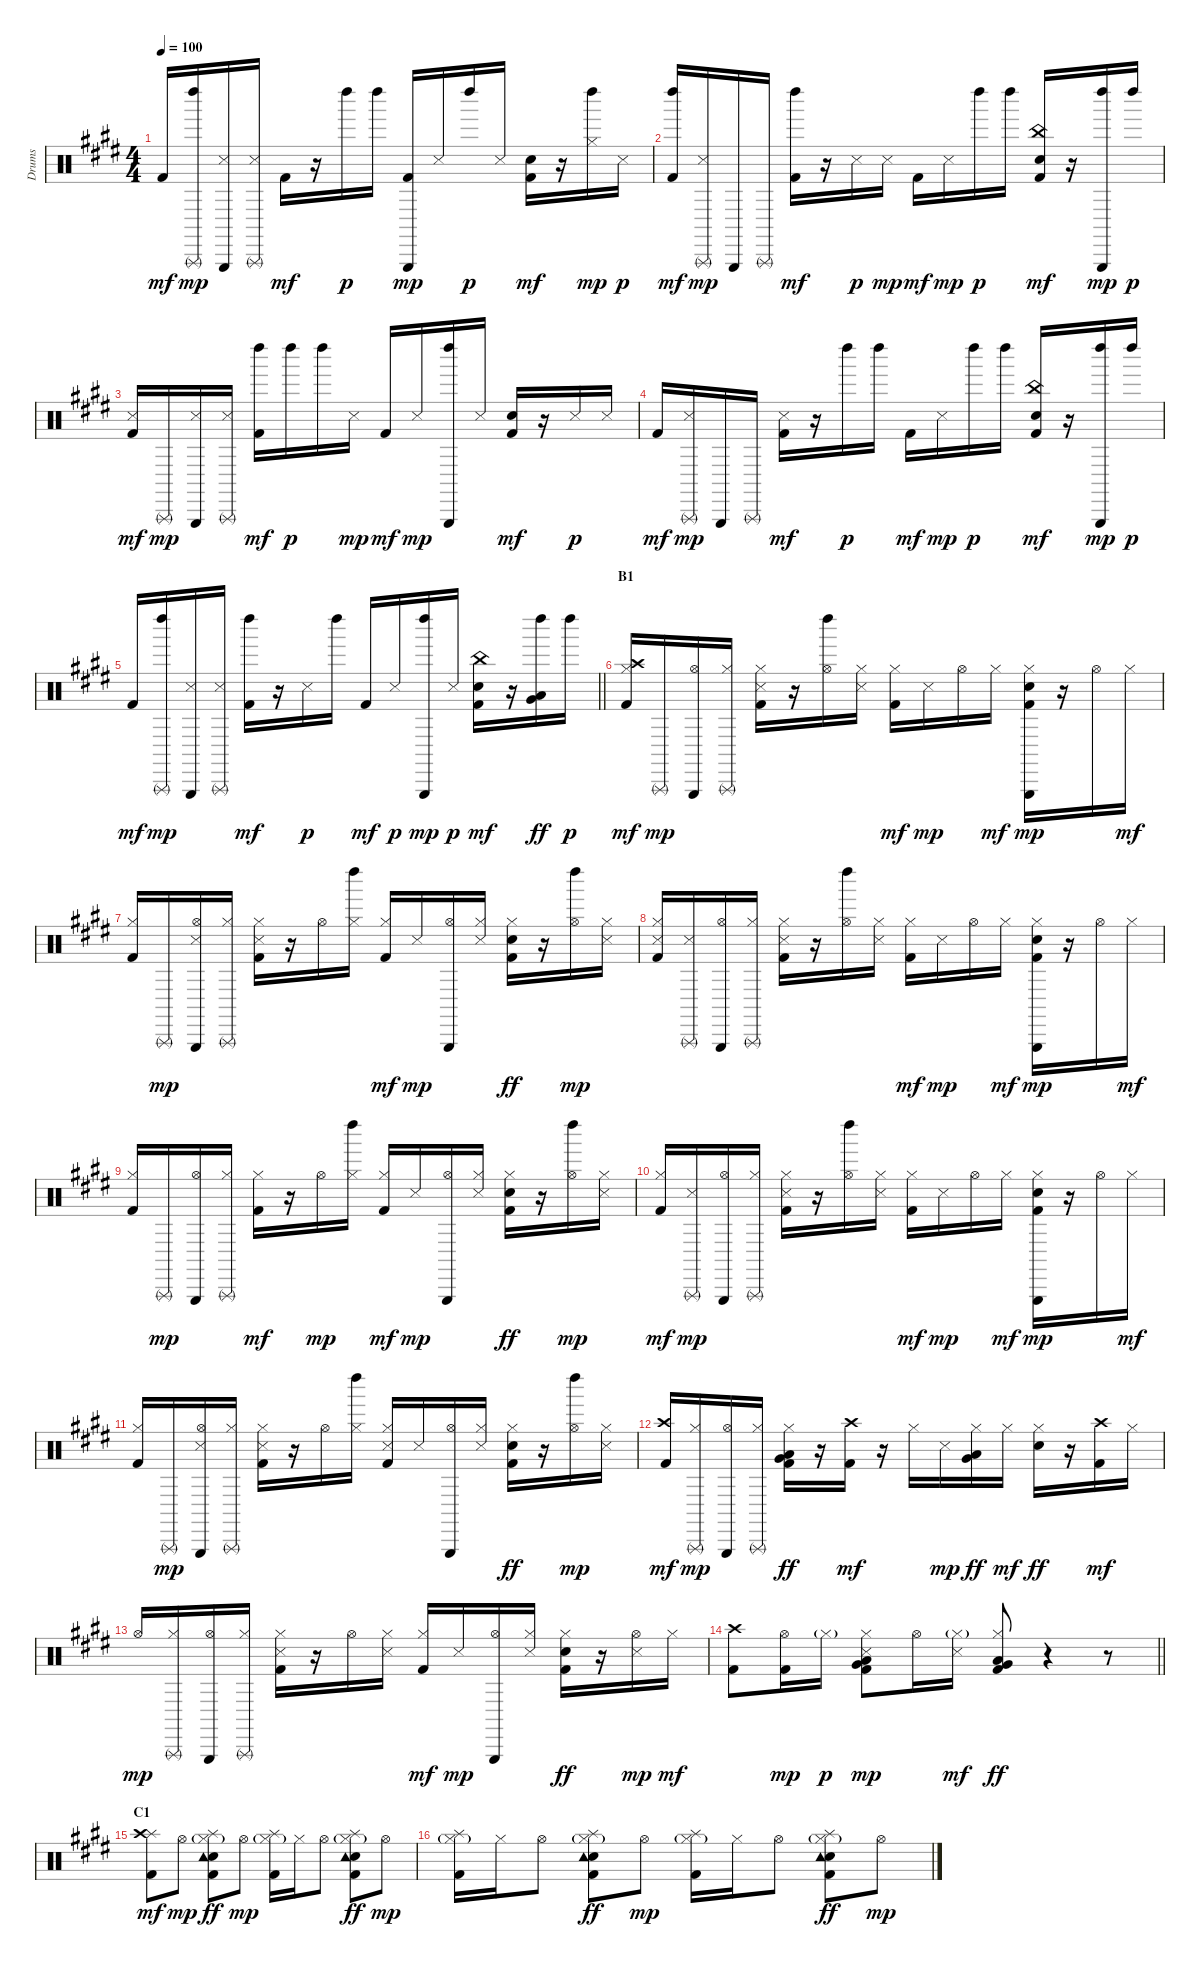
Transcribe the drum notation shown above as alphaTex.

\track ("Drums" "Drums") {instrument percussion}
\staff {score}
\articulation defaults
\ts (4 4)
\tempo 100
\clef neutral
\ks e "Kick (hit) 2".16{dy mf}
("Left Maraca (hit)" "Triangle (rnute)").16{dy mp} ("Metronome (hit)" "Triangle (hit)").16 ("Metronome (hit)" "Triangle (rnute)").16 "Kick (hit) 2".16{dy mf} r.16 "Left Maraca (hit)".16{dy p} "Left Maraca (hit)".16 ("Kick (hit) 2" "Triangle (hit)").16{dy mp} "Metronome (hit)".16 "Left Maraca (hit)".16{dy p} "Metronome (hit)".16 ("Hand Clap (hit)" "Kick (hit) 2").16{dy mf} r.16 ("Left Maraca (hit)" "Hi-Hat (closed)").16{dy mp} "Metronome (hit)".16{dy p} |
("Left Maraca (hit)" "Kick (hit) 2").16{dy mf} ("Metronome (hit)" "Triangle (rnute)").16{dy mp} "Triangle (hit)".16 "Triangle (rnute)".16 ("Left Maraca (hit)" "Kick (hit) 2").16{dy mf} r.16 "Metronome (hit)".16{dy p} "Metronome (hit)".16{dy mp} "Kick (hit) 2".16{dy mf} "Metronome (hit)".16{dy mp} "Left Maraca (hit)".16{dy p} "Left Maraca (hit)".16 ("China (hit)" "Hand Clap (hit)" "Kick (hit) 2").16{dy mf} r.16 ("Left Maraca (hit)" "Triangle (hit)").16{dy mp} "Left Maraca (hit)".16{dy p} |
("Metronome (hit)" "Kick (hit) 2").16{dy mf} "Triangle (rnute)".16{dy mp} ("Metronome (hit)" "Triangle (hit)").16 ("Metronome (hit)" "Triangle (rnute)").16 ("Left Maraca (hit)" "Kick (hit) 2").16{dy mf} "Left Maraca (hit)".16{dy p} "Left Maraca (hit)".16 "Metronome (hit)".16{dy mp} "Kick (hit) 2".16{dy mf} "Metronome (hit)".16{dy mp} ("Left Maraca (hit)" "Triangle (hit)").16 "Metronome (hit)".16 ("Hand Clap (hit)" "Kick (hit) 2").16{dy mf} r.16 "Metronome (hit)".16{dy p} "Metronome (hit)".16 |
"Kick (hit) 2".16{dy mf} ("Metronome (hit)" "Triangle (rnute)").16{dy mp} "Triangle (hit)".16 "Triangle (rnute)".16 ("Metronome (hit)" "Kick (hit) 2").16{dy mf} r.16 "Left Maraca (hit)".16{dy p} "Left Maraca (hit)".16 "Kick (hit) 2".16{dy mf} "Metronome (hit)".16{dy mp} "Left Maraca (hit)".16{dy p} "Left Maraca (hit)".16 ("China (hit)" "Hand Clap (hit)" "Kick (hit) 2").16{dy mf} r.16 ("Left Maraca (hit)" "Triangle (hit)").16{dy mp} "Left Maraca (hit)".16{dy p} |
\barLineRight lightlight "Kick (hit) 2".16{dy mf}
("Left Maraca (hit)" "Triangle (rnute)").16{dy mp} ("Metronome (hit)" "Triangle (hit)").16 ("Metronome (hit)" "Triangle (rnute)").16 ("Left Maraca (hit)" "Kick (hit) 2").16{dy mf} r.16 "Metronome (hit)".16{dy p} "Left Maraca (hit)".16 "Kick (hit) 2".16{dy mf} "Metronome (hit)".16{dy p} ("Left Maraca (hit)" "Triangle (hit)").16{dy mp} "Metronome (hit)".16{dy p} ("China (hit)" "Hand Clap (hit)" "Kick (hit) 2").16{dy mf} r.16 ("Left Maraca (hit)" "Low Tom (hit)" "Very Low Tom (hit)").16{dy ff} "Left Maraca (hit)".16{dy p} |
\section ("" "B1")
("Crash high (hit)" "Hi-Hat (closed)" "Kick (hit) 2").16{dy mf} "Triangle (rnute)".16{dy mp} ("Hi-Hat (open)" "Triangle (hit)").16 ("Hi-Hat (closed)" "Triangle (rnute)").16 ("Hi-Hat (closed)" "Metronome (hit)" "Kick (hit) 2").16 r.16 ("Hi-Hat (open)" "Left Maraca (hit)").16 ("Hi-Hat (closed)" "Metronome (hit)").16 ("Hi-Hat (closed)" "Kick (hit) 2").16{dy mf} "Metronome (hit)".16{dy mp} "Hi-Hat (open)".16 "Hi-Hat (closed)".16{dy mf} ("Hi-Hat (closed)" "Hand Clap (hit)" "Kick (hit) 2" "Triangle (hit)").16{dy mp} r.16 "Hi-Hat (open)".16 "Hi-Hat (closed)".16{dy mf} |
("Hi-Hat (closed)" "Kick (hit) 2").16 "Triangle (rnute)".16{dy mp} ("Hi-Hat (open)" "Metronome (hit)" "Triangle (hit)").16 ("Hi-Hat (closed)" "Triangle (rnute)").16 ("Hi-Hat (closed)" "Metronome (hit)" "Kick (hit) 2").16 r.16 "Hi-Hat (open)".16 ("Hi-Hat (closed)" "Left Maraca (hit)").16 ("Hi-Hat (closed)" "Kick (hit) 2").16{dy mf} "Metronome (hit)".16{dy mp} ("Hi-Hat (open)" "Triangle (hit)").16 ("Hi-Hat (closed)" "Metronome (hit)").16 ("Hi-Hat (closed)" "Hand Clap (hit)" "Kick (hit) 2").16{dy ff} r.16 ("Hi-Hat (open)" "Left Maraca (hit)").16{dy mp} ("Hi-Hat (closed)" "Metronome (hit)").16 |
("Hi-Hat (closed)" "Metronome (hit)" "Kick (hit) 2").16 ("Metronome (hit)" "Triangle (rnute)").16 ("Hi-Hat (open)" "Triangle (hit)").16 ("Hi-Hat (closed)" "Triangle (rnute)").16 ("Hi-Hat (closed)" "Metronome (hit)" "Kick (hit) 2").16 r.16 ("Hi-Hat (open)" "Left Maraca (hit)").16 ("Hi-Hat (closed)" "Metronome (hit)").16 ("Hi-Hat (closed)" "Kick (hit) 2").16{dy mf} "Metronome (hit)".16{dy mp} "Hi-Hat (open)".16 "Hi-Hat (closed)".16{dy mf} ("Hi-Hat (closed)" "Hand Clap (hit)" "Kick (hit) 2" "Triangle (hit)").16{dy mp} r.16 "Hi-Hat (open)".16 "Hi-Hat (closed)".16{dy mf} |
("Hi-Hat (closed)" "Kick (hit) 2").16 "Triangle (rnute)".16{dy mp} ("Hi-Hat (open)" "Triangle (hit)").16 ("Hi-Hat (closed)" "Triangle (rnute)").16 ("Hi-Hat (closed)" "Kick (hit) 2").16{dy mf} r.16 "Hi-Hat (open)".16{dy mp} ("Hi-Hat (closed)" "Left Maraca (hit)").16 ("Hi-Hat (closed)" "Kick (hit) 2").16{dy mf} "Metronome (hit)".16{dy mp} ("Hi-Hat (open)" "Triangle (hit)").16 ("Hi-Hat (closed)" "Metronome (hit)").16 ("Hi-Hat (closed)" "Hand Clap (hit)" "Kick (hit) 2").16{dy ff} r.16 ("Hi-Hat (open)" "Left Maraca (hit)").16{dy mp} ("Hi-Hat (closed)" "Metronome (hit)").16 |
("Hi-Hat (closed)" "Kick (hit) 2").16{dy mf} ("Metronome (hit)" "Triangle (rnute)").16{dy mp} ("Hi-Hat (open)" "Triangle (hit)").16 ("Hi-Hat (closed)" "Triangle (rnute)").16 ("Hi-Hat (closed)" "Metronome (hit)" "Kick (hit) 2").16 r.16 ("Hi-Hat (open)" "Left Maraca (hit)").16 ("Hi-Hat (closed)" "Metronome (hit)").16 ("Hi-Hat (closed)" "Kick (hit) 2").16{dy mf} "Metronome (hit)".16{dy mp} "Hi-Hat (open)".16 "Hi-Hat (closed)".16{dy mf} ("Hi-Hat (closed)" "Hand Clap (hit)" "Kick (hit) 2" "Triangle (hit)").16{dy mp} r.16 "Hi-Hat (open)".16 "Hi-Hat (closed)".16{dy mf} |
("Hi-Hat (closed)" "Kick (hit) 2").16 "Triangle (rnute)".16{dy mp} ("Hi-Hat (open)" "Metronome (hit)" "Triangle (hit)").16 ("Hi-Hat (closed)" "Triangle (rnute)").16 ("Hi-Hat (closed)" "Metronome (hit)" "Kick (hit) 2").16 r.16 "Hi-Hat (open)".16 ("Hi-Hat (closed)" "Left Maraca (hit)").16 ("Hi-Hat (closed)" "Metronome (hit)" "Kick (hit) 2").16 "Metronome (hit)".16 ("Hi-Hat (open)" "Triangle (hit)").16 ("Hi-Hat (closed)" "Metronome (hit)").16 ("Hi-Hat (closed)" "Hand Clap (hit)" "Kick (hit) 2").16{dy ff} r.16 ("Hi-Hat (open)" "Left Maraca (hit)").16{dy mp} ("Hi-Hat (closed)" "Metronome (hit)").16 |
("Crash high (hit)" "Kick (hit) 2").16{dy mf} ("Hi-Hat (closed)" "Triangle (rnute)").16{dy mp} ("Hi-Hat (open)" "Triangle (hit)").16 ("Hi-Hat (closed)" "Triangle (rnute)").16 ("Hi-Hat (closed)" "Low Tom (hit)" "Very Low Tom (hit)" "Kick (hit) 2").16{dy ff} r.16 ("Crash high (hit)" "Kick (hit) 2").16{dy mf} r.16 "Hi-Hat (closed)".16 "Metronome (hit)".16{dy mp} ("Hi-Hat (closed)" "Very Low Tom (hit)" "Low Floor Tom (hit)").16{dy ff} "Hi-Hat (closed)".16{dy mf} ("Hi-Hat (closed)" "Hand Clap (hit)").16{dy ff} r.16 ("Crash high (hit)" "Kick (hit) 2").16{dy mf} "Hi-Hat (closed)".16 |
"Hi-Hat (open)".16{dy mp} ("Hi-Hat (closed)" "Triangle (rnute)").16 ("Hi-Hat (open)" "Triangle (hit)").16 ("Hi-Hat (closed)" "Triangle (rnute)").16 ("Hi-Hat (closed)" "Metronome (hit)" "Kick (hit) 2").16 r.16 "Hi-Hat (open)".16 ("Hi-Hat (closed)" "Metronome (hit)").16 ("Hi-Hat (closed)" "Kick (hit) 2").16{dy mf} "Metronome (hit)".16{dy mp} ("Hi-Hat (open)" "Triangle (hit)").16 ("Hi-Hat (closed)" "Metronome (hit)").16 ("Hi-Hat (closed)" "Hand Clap (hit)" "Kick (hit) 2").16{dy ff} r.16 ("Hi-Hat (open)" "Metronome (hit)").16{dy mp} "Hi-Hat (closed)".16{dy mf} |
\barLineRight lightlight
("Crash high (hit)" "Kick (hit) 2").8 ("Hi-Hat (open)" "Kick (hit) 2").16{dy mp} "Hi-Hat (closed)"{g}.16{dy p} ("Hi-Hat (closed)" "Low Tom (hit)" "Very Low Tom (hit)" "Kick (hit) 2" "Metronome (hit)").8{dy mp} "Hi-Hat (open)".16 ("Hi-Hat (closed)"{g} "Metronome (hit)").16{dy mf} ("Hi-Hat (closed)" "Low Tom (hit)" "Very Low Tom (hit)" "Kick (hit) 2").8{dy ff} r.4 r.8 |
\section ("" "C1")
("Splash (hit)" "Crash high (hit)" "Kick (hit) 2").8{dy mf} "Hi-Hat (open)".8{dy mp} ("Splash (hit)" "Hi-Hat (closed)"{g} "Hand Clap (hit)" "Kick (hit) 2" "Tambourine (hit)").8{dy ff} "Hi-Hat (open)".8{dy mp} ("Splash (hit)" "Hi-Hat (closed)"{g} "Kick (hit) 2").16 "Hi-Hat (closed)".16 "Hi-Hat (open)".8 ("Splash (hit)" "Hi-Hat (closed)"{g} "Hand Clap (hit)" "Kick (hit) 2" "Tambourine (hit)").8{dy ff} "Hi-Hat (open)".8{dy mp} |
("Splash (hit)" "Hi-Hat (closed)"{g} "Kick (hit) 2").16 "Hi-Hat (closed)".16 "Hi-Hat (open)".8 ("Splash (hit)" "Hi-Hat (closed)"{g} "Hand Clap (hit)" "Kick (hit) 2" "Tambourine (hit)").8{dy ff} "Hi-Hat (open)".8{dy mp} ("Splash (hit)" "Hi-Hat (closed)"{g} "Kick (hit) 2").16 "Hi-Hat (closed)".16 "Hi-Hat (open)".8 ("Splash (hit)" "Hi-Hat (closed)"{g} "Hand Clap (hit)" "Kick (hit) 2" "Tambourine (hit)").8{dy ff} "Hi-Hat (open)".8{dy mp}
